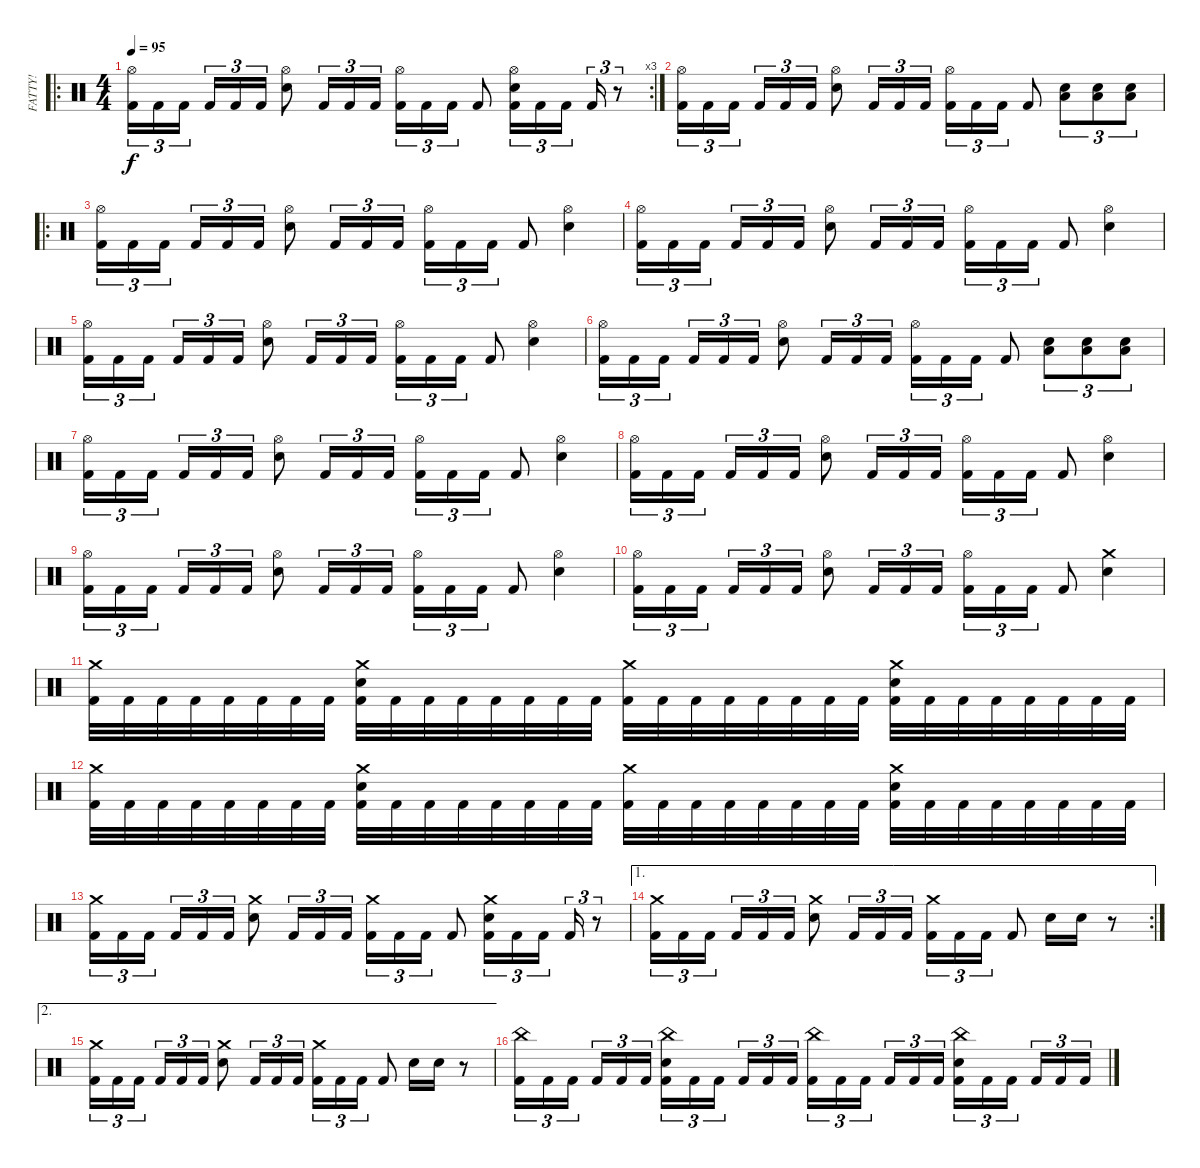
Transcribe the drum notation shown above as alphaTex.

\track ("FATTY!" "FATTY!") {instrument percussion}
\staff {score}
\articulation defaults
\ro
\rc 3
\ts (4 4)
\tempo 95
\clef neutral
\ks c
("Hi-Hat (open)" "Kick (hit) 2").16{tu (3 2) dy f} "Kick (hit) 2".16{tu (3 2)} "Kick (hit) 2".16{tu (3 2) beam splitsecondary} "Kick (hit) 2".16{tu (3 2)} "Kick (hit) 2".16{tu (3 2)} "Kick (hit) 2".16{tu (3 2)} ("Hi-Hat (open)" "Electric Snare (hit)").8 "Kick (hit) 2".16{tu (3 2)} "Kick (hit) 2".16{tu (3 2)} "Kick (hit) 2".16{tu (3 2)} ("Hi-Hat (open)" "Kick (hit) 2").16{tu (3 2)} "Kick (hit) 2".16{tu (3 2)} "Kick (hit) 2".16{tu (3 2)} "Kick (hit) 2".8 ("Hi-Hat (open)" "Electric Snare (hit)" "Kick (hit) 2").16{tu (3 2)} "Kick (hit) 2".16{tu (3 2)} "Kick (hit) 2".16{tu (3 2) beam splitsecondary} "Kick (hit) 2".16{tu (3 2)} r.8{tu (3 2)} |
("Hi-Hat (open)" "Kick (hit) 2").16{tu (3 2)} "Kick (hit) 2".16{tu (3 2)} "Kick (hit) 2".16{tu (3 2) beam splitsecondary} "Kick (hit) 2".16{tu (3 2)} "Kick (hit) 2".16{tu (3 2)} "Kick (hit) 2".16{tu (3 2)} ("Hi-Hat (open)" "Electric Snare (hit)").8 "Kick (hit) 2".16{tu (3 2)} "Kick (hit) 2".16{tu (3 2)} "Kick (hit) 2".16{tu (3 2)} ("Hi-Hat (open)" "Kick (hit) 2").16{tu (3 2)} "Kick (hit) 2".16{tu (3 2)} "Kick (hit) 2".16{tu (3 2)} "Kick (hit) 2".8 ("Low Tom (hit)" "Electric Snare (hit)").8{tu (3 2)} ("Low Tom (hit)" "Electric Snare (hit)").8{tu (3 2)} ("Low Tom (hit)" "Electric Snare (hit)").8{tu (3 2)} |
\ro
("Hi-Hat (open)" "Kick (hit) 2").16{tu (3 2)} "Kick (hit) 2".16{tu (3 2)} "Kick (hit) 2".16{tu (3 2) beam splitsecondary} "Kick (hit) 2".16{tu (3 2)} "Kick (hit) 2".16{tu (3 2)} "Kick (hit) 2".16{tu (3 2)} ("Hi-Hat (open)" "Electric Snare (hit)").8 "Kick (hit) 2".16{tu (3 2)} "Kick (hit) 2".16{tu (3 2)} "Kick (hit) 2".16{tu (3 2)} ("Hi-Hat (open)" "Kick (hit) 2").16{tu (3 2)} "Kick (hit) 2".16{tu (3 2)} "Kick (hit) 2".16{tu (3 2)} "Kick (hit) 2".8 ("Hi-Hat (open)" "Electric Snare (hit)").4 |
("Hi-Hat (open)" "Kick (hit) 2").16{tu (3 2)} "Kick (hit) 2".16{tu (3 2)} "Kick (hit) 2".16{tu (3 2) beam splitsecondary} "Kick (hit) 2".16{tu (3 2)} "Kick (hit) 2".16{tu (3 2)} "Kick (hit) 2".16{tu (3 2)} ("Hi-Hat (open)" "Electric Snare (hit)").8 "Kick (hit) 2".16{tu (3 2)} "Kick (hit) 2".16{tu (3 2)} "Kick (hit) 2".16{tu (3 2)} ("Hi-Hat (open)" "Kick (hit) 2").16{tu (3 2)} "Kick (hit) 2".16{tu (3 2)} "Kick (hit) 2".16{tu (3 2)} "Kick (hit) 2".8 ("Hi-Hat (open)" "Electric Snare (hit)").4 |
("Hi-Hat (open)" "Kick (hit) 2").16{tu (3 2)} "Kick (hit) 2".16{tu (3 2)} "Kick (hit) 2".16{tu (3 2) beam splitsecondary} "Kick (hit) 2".16{tu (3 2)} "Kick (hit) 2".16{tu (3 2)} "Kick (hit) 2".16{tu (3 2)} ("Hi-Hat (open)" "Electric Snare (hit)").8 "Kick (hit) 2".16{tu (3 2)} "Kick (hit) 2".16{tu (3 2)} "Kick (hit) 2".16{tu (3 2)} ("Hi-Hat (open)" "Kick (hit) 2").16{tu (3 2)} "Kick (hit) 2".16{tu (3 2)} "Kick (hit) 2".16{tu (3 2)} "Kick (hit) 2".8 ("Hi-Hat (open)" "Electric Snare (hit)").4 |
("Hi-Hat (open)" "Kick (hit) 2").16{tu (3 2)} "Kick (hit) 2".16{tu (3 2)} "Kick (hit) 2".16{tu (3 2) beam splitsecondary} "Kick (hit) 2".16{tu (3 2)} "Kick (hit) 2".16{tu (3 2)} "Kick (hit) 2".16{tu (3 2)} ("Hi-Hat (open)" "Electric Snare (hit)").8 "Kick (hit) 2".16{tu (3 2)} "Kick (hit) 2".16{tu (3 2)} "Kick (hit) 2".16{tu (3 2)} ("Hi-Hat (open)" "Kick (hit) 2").16{tu (3 2)} "Kick (hit) 2".16{tu (3 2)} "Kick (hit) 2".16{tu (3 2)} "Kick (hit) 2".8 ("Low Tom (hit)" "Electric Snare (hit)").8{tu (3 2)} ("Low Tom (hit)" "Electric Snare (hit)").8{tu (3 2)} ("Low Tom (hit)" "Electric Snare (hit)").8{tu (3 2)} |
("Hi-Hat (open)" "Kick (hit) 2").16{tu (3 2)} "Kick (hit) 2".16{tu (3 2)} "Kick (hit) 2".16{tu (3 2) beam splitsecondary} "Kick (hit) 2".16{tu (3 2)} "Kick (hit) 2".16{tu (3 2)} "Kick (hit) 2".16{tu (3 2)} ("Hi-Hat (open)" "Electric Snare (hit)").8 "Kick (hit) 2".16{tu (3 2)} "Kick (hit) 2".16{tu (3 2)} "Kick (hit) 2".16{tu (3 2)} ("Hi-Hat (open)" "Kick (hit) 2").16{tu (3 2)} "Kick (hit) 2".16{tu (3 2)} "Kick (hit) 2".16{tu (3 2)} "Kick (hit) 2".8 ("Hi-Hat (open)" "Electric Snare (hit)").4 |
("Hi-Hat (open)" "Kick (hit) 2").16{tu (3 2)} "Kick (hit) 2".16{tu (3 2)} "Kick (hit) 2".16{tu (3 2) beam splitsecondary} "Kick (hit) 2".16{tu (3 2)} "Kick (hit) 2".16{tu (3 2)} "Kick (hit) 2".16{tu (3 2)} ("Hi-Hat (open)" "Electric Snare (hit)").8 "Kick (hit) 2".16{tu (3 2)} "Kick (hit) 2".16{tu (3 2)} "Kick (hit) 2".16{tu (3 2)} ("Hi-Hat (open)" "Kick (hit) 2").16{tu (3 2)} "Kick (hit) 2".16{tu (3 2)} "Kick (hit) 2".16{tu (3 2)} "Kick (hit) 2".8 ("Hi-Hat (open)" "Electric Snare (hit)").4 |
("Hi-Hat (open)" "Kick (hit) 2").16{tu (3 2)} "Kick (hit) 2".16{tu (3 2)} "Kick (hit) 2".16{tu (3 2) beam splitsecondary} "Kick (hit) 2".16{tu (3 2)} "Kick (hit) 2".16{tu (3 2)} "Kick (hit) 2".16{tu (3 2)} ("Hi-Hat (open)" "Electric Snare (hit)").8 "Kick (hit) 2".16{tu (3 2)} "Kick (hit) 2".16{tu (3 2)} "Kick (hit) 2".16{tu (3 2)} ("Hi-Hat (open)" "Kick (hit) 2").16{tu (3 2)} "Kick (hit) 2".16{tu (3 2)} "Kick (hit) 2".16{tu (3 2)} "Kick (hit) 2".8 ("Hi-Hat (open)" "Electric Snare (hit)").4 |
("Hi-Hat (open)" "Kick (hit) 2").16{tu (3 2)} "Kick (hit) 2".16{tu (3 2)} "Kick (hit) 2".16{tu (3 2) beam splitsecondary} "Kick (hit) 2".16{tu (3 2)} "Kick (hit) 2".16{tu (3 2)} "Kick (hit) 2".16{tu (3 2)} ("Hi-Hat (open)" "Electric Snare (hit)").8 "Kick (hit) 2".16{tu (3 2)} "Kick (hit) 2".16{tu (3 2)} "Kick (hit) 2".16{tu (3 2)} ("Hi-Hat (open)" "Kick (hit) 2").16{tu (3 2)} "Kick (hit) 2".16{tu (3 2)} "Kick (hit) 2".16{tu (3 2)} "Kick (hit) 2".8 ("Crash medium (hit)" "Electric Snare (hit)").4 |
("Crash medium (hit)" "Kick (hit) 2").32 "Kick (hit) 2".32 "Kick (hit) 2".32 "Kick (hit) 2".32 "Kick (hit) 2".32 "Kick (hit) 2".32 "Kick (hit) 2".32 "Kick (hit) 2".32 ("Crash medium (hit)" "Electric Snare (hit)" "Kick (hit) 2").32 "Kick (hit) 2".32 "Kick (hit) 2".32 "Kick (hit) 2".32 "Kick (hit) 2".32 "Kick (hit) 2".32 "Kick (hit) 2".32 "Kick (hit) 2".32 ("Crash medium (hit)" "Kick (hit) 2").32 "Kick (hit) 2".32 "Kick (hit) 2".32 "Kick (hit) 2".32 "Kick (hit) 2".32 "Kick (hit) 2".32 "Kick (hit) 2".32 "Kick (hit) 2".32 ("Crash medium (hit)" "Electric Snare (hit)" "Kick (hit) 2").32 "Kick (hit) 2".32 "Kick (hit) 2".32 "Kick (hit) 2".32 "Kick (hit) 2".32 "Kick (hit) 2".32 "Kick (hit) 2".32 "Kick (hit) 2".32 |
("Crash medium (hit)" "Kick (hit) 2").32 "Kick (hit) 2".32 "Kick (hit) 2".32 "Kick (hit) 2".32 "Kick (hit) 2".32 "Kick (hit) 2".32 "Kick (hit) 2".32 "Kick (hit) 2".32 ("Crash medium (hit)" "Electric Snare (hit)" "Kick (hit) 2").32 "Kick (hit) 2".32 "Kick (hit) 2".32 "Kick (hit) 2".32 "Kick (hit) 2".32 "Kick (hit) 2".32 "Kick (hit) 2".32 "Kick (hit) 2".32 ("Crash medium (hit)" "Kick (hit) 2").32 "Kick (hit) 2".32 "Kick (hit) 2".32 "Kick (hit) 2".32 "Kick (hit) 2".32 "Kick (hit) 2".32 "Kick (hit) 2".32 "Kick (hit) 2".32 ("Crash medium (hit)" "Electric Snare (hit)" "Kick (hit) 2").32 "Kick (hit) 2".32 "Kick (hit) 2".32 "Kick (hit) 2".32 "Kick (hit) 2".32 "Kick (hit) 2".32 "Kick (hit) 2".32 "Kick (hit) 2".32 |
("Crash medium (hit)" "Kick (hit) 2").16{tu (3 2)} "Kick (hit) 2".16{tu (3 2)} "Kick (hit) 2".16{tu (3 2) beam splitsecondary} "Kick (hit) 2".16{tu (3 2)} "Kick (hit) 2".16{tu (3 2)} "Kick (hit) 2".16{tu (3 2)} ("Crash medium (hit)" "Electric Snare (hit)").8 "Kick (hit) 2".16{tu (3 2)} "Kick (hit) 2".16{tu (3 2)} "Kick (hit) 2".16{tu (3 2)} ("Crash medium (hit)" "Kick (hit) 2").16{tu (3 2)} "Kick (hit) 2".16{tu (3 2)} "Kick (hit) 2".16{tu (3 2)} "Kick (hit) 2".8 ("Crash medium (hit)" "Electric Snare (hit)" "Kick (hit) 2").16{tu (3 2)} "Kick (hit) 2".16{tu (3 2)} "Kick (hit) 2".16{tu (3 2) beam splitsecondary} "Kick (hit) 2".16{tu (3 2)} r.8{tu (3 2)} |
\ae 1
\rc 2
("Crash medium (hit)" "Kick (hit) 2").16{tu (3 2)} "Kick (hit) 2".16{tu (3 2)} "Kick (hit) 2".16{tu (3 2) beam splitsecondary} "Kick (hit) 2".16{tu (3 2)} "Kick (hit) 2".16{tu (3 2)} "Kick (hit) 2".16{tu (3 2)} ("Crash medium (hit)" "Electric Snare (hit)").8 "Kick (hit) 2".16{tu (3 2)} "Kick (hit) 2".16{tu (3 2)} "Kick (hit) 2".16{tu (3 2)} ("Crash medium (hit)" "Kick (hit) 2").16{tu (3 2)} "Kick (hit) 2".16{tu (3 2)} "Kick (hit) 2".16{tu (3 2)} "Kick (hit) 2".8 "Electric Snare (hit)".16 "Electric Snare (hit)".16 r.8 |
\ae 2
("Crash medium (hit)" "Kick (hit) 2").16{tu (3 2)} "Kick (hit) 2".16{tu (3 2)} "Kick (hit) 2".16{tu (3 2) beam splitsecondary} "Kick (hit) 2".16{tu (3 2)} "Kick (hit) 2".16{tu (3 2)} "Kick (hit) 2".16{tu (3 2)} ("Crash medium (hit)" "Electric Snare (hit)").8 "Kick (hit) 2".16{tu (3 2)} "Kick (hit) 2".16{tu (3 2)} "Kick (hit) 2".16{tu (3 2)} ("Crash medium (hit)" "Kick (hit) 2").16{tu (3 2)} "Kick (hit) 2".16{tu (3 2)} "Kick (hit) 2".16{tu (3 2)} "Kick (hit) 2".8 "Electric Snare (hit)".16 "Electric Snare (hit)".16 r.8 |
("China (hit)" "Kick (hit) 2").16{tu (3 2)} "Kick (hit) 2".16{tu (3 2)} "Kick (hit) 2".16{tu (3 2) beam splitsecondary} "Kick (hit) 2".16{tu (3 2)} "Kick (hit) 2".16{tu (3 2)} "Kick (hit) 2".16{tu (3 2)} ("China (hit)" "Electric Snare (hit)" "Kick (hit) 2").16{tu (3 2)} "Kick (hit) 2".16{tu (3 2)} "Kick (hit) 2".16{tu (3 2) beam splitsecondary} "Kick (hit) 2".16{tu (3 2)} "Kick (hit) 2".16{tu (3 2)} "Kick (hit) 2".16{tu (3 2)} ("China (hit)" "Kick (hit) 2").16{tu (3 2)} "Kick (hit) 2".16{tu (3 2)} "Kick (hit) 2".16{tu (3 2) beam splitsecondary} "Kick (hit) 2".16{tu (3 2)} "Kick (hit) 2".16{tu (3 2)} "Kick (hit) 2".16{tu (3 2)} ("China (hit)" "Electric Snare (hit)" "Kick (hit) 2").16{tu (3 2)} "Kick (hit) 2".16{tu (3 2)} "Kick (hit) 2".16{tu (3 2) beam splitsecondary} "Kick (hit) 2".16{tu (3 2)} "Kick (hit) 2".16{tu (3 2)} "Kick (hit) 2".16{tu (3 2)}
